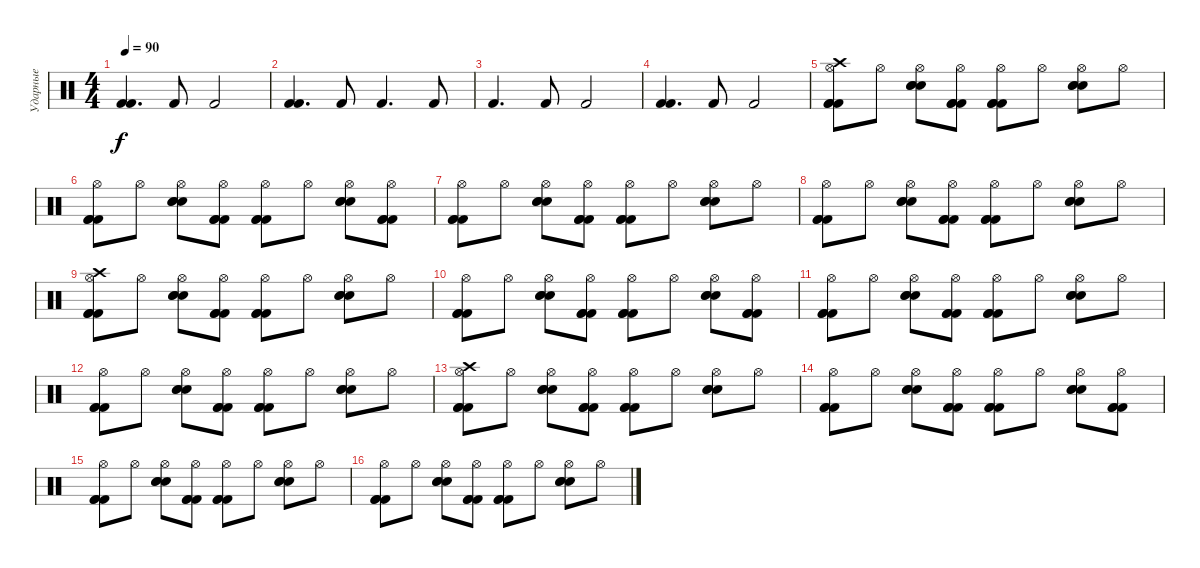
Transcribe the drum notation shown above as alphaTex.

\track ("Ударные" "Ударные") {instrument percussion}
\staff {score}
\articulation defaults
\ts (4 4)
\tempo 90
\clef neutral
\ks c
("Kick (hit) 2" "Kick (hit) 2").4{d dy f} "Kick (hit) 2".8 "Kick (hit) 2".2 |
("Kick (hit) 2" "Kick (hit) 2").4{d} "Kick (hit) 2".8 "Kick (hit) 2".4{d} "Kick (hit) 2".8 |
"Kick (hit) 2".4{d} "Kick (hit) 2".8 "Kick (hit) 2".2 |
("Kick (hit) 2" "Kick (hit) 2").4{d} "Kick (hit) 2".8 "Kick (hit) 2".2 |
("Hi-Hat (open)" "Crash high (hit)" "Kick (hit) 2" "Kick (hit) 2" "Kick (hit) 2").8 "Hi-Hat (open)".8 ("Hi-Hat (open)" "Electric Snare (hit)" "Electric Snare (hit)" "Electric Snare (hit)").8 ("Hi-Hat (open)" "Kick (hit) 2" "Kick (hit) 2" "Kick (hit) 2").8 ("Hi-Hat (open)" "Kick (hit) 2" "Kick (hit) 2" "Kick (hit) 2").8 "Hi-Hat (open)".8 ("Hi-Hat (open)" "Electric Snare (hit)" "Electric Snare (hit)" "Electric Snare (hit)").8 "Hi-Hat (open)".8 |
("Hi-Hat (open)" "Kick (hit) 2" "Kick (hit) 2" "Kick (hit) 2").8 "Hi-Hat (open)".8 ("Hi-Hat (open)" "Electric Snare (hit)" "Electric Snare (hit)" "Electric Snare (hit)").8 ("Hi-Hat (open)" "Kick (hit) 2" "Kick (hit) 2" "Kick (hit) 2").8 ("Hi-Hat (open)" "Kick (hit) 2" "Kick (hit) 2" "Kick (hit) 2").8 "Hi-Hat (open)".8 ("Hi-Hat (open)" "Electric Snare (hit)" "Electric Snare (hit)" "Electric Snare (hit)").8 ("Hi-Hat (open)" "Kick (hit) 2" "Kick (hit) 2" "Kick (hit) 2").8 |
("Hi-Hat (open)" "Kick (hit) 2" "Kick (hit) 2" "Kick (hit) 2").8 "Hi-Hat (open)".8 ("Hi-Hat (open)" "Electric Snare (hit)" "Electric Snare (hit)" "Electric Snare (hit)").8 ("Hi-Hat (open)" "Kick (hit) 2" "Kick (hit) 2" "Kick (hit) 2").8 ("Hi-Hat (open)" "Kick (hit) 2" "Kick (hit) 2" "Kick (hit) 2").8 "Hi-Hat (open)".8 ("Hi-Hat (open)" "Electric Snare (hit)" "Electric Snare (hit)" "Electric Snare (hit)").8 "Hi-Hat (open)".8 |
("Hi-Hat (open)" "Kick (hit) 2" "Kick (hit) 2" "Kick (hit) 2").8 "Hi-Hat (open)".8 ("Hi-Hat (open)" "Electric Snare (hit)" "Electric Snare (hit)" "Electric Snare (hit)").8 ("Hi-Hat (open)" "Kick (hit) 2" "Kick (hit) 2" "Kick (hit) 2").8 ("Hi-Hat (open)" "Kick (hit) 2" "Kick (hit) 2" "Kick (hit) 2").8 "Hi-Hat (open)".8 ("Hi-Hat (open)" "Electric Snare (hit)" "Electric Snare (hit)" "Electric Snare (hit)").8 "Hi-Hat (open)".8 |
("Hi-Hat (open)" "Crash high (hit)" "Kick (hit) 2" "Kick (hit) 2" "Kick (hit) 2").8 "Hi-Hat (open)".8 ("Hi-Hat (open)" "Electric Snare (hit)" "Electric Snare (hit)" "Electric Snare (hit)").8 ("Hi-Hat (open)" "Kick (hit) 2" "Kick (hit) 2" "Kick (hit) 2").8 ("Hi-Hat (open)" "Kick (hit) 2" "Kick (hit) 2" "Kick (hit) 2").8 "Hi-Hat (open)".8 ("Hi-Hat (open)" "Electric Snare (hit)" "Electric Snare (hit)" "Electric Snare (hit)").8 "Hi-Hat (open)".8 |
("Hi-Hat (open)" "Kick (hit) 2" "Kick (hit) 2" "Kick (hit) 2").8 "Hi-Hat (open)".8 ("Hi-Hat (open)" "Electric Snare (hit)" "Electric Snare (hit)" "Electric Snare (hit)").8 ("Hi-Hat (open)" "Kick (hit) 2" "Kick (hit) 2" "Kick (hit) 2").8 ("Hi-Hat (open)" "Kick (hit) 2" "Kick (hit) 2" "Kick (hit) 2").8 "Hi-Hat (open)".8 ("Hi-Hat (open)" "Electric Snare (hit)" "Electric Snare (hit)" "Electric Snare (hit)").8 ("Hi-Hat (open)" "Kick (hit) 2" "Kick (hit) 2" "Kick (hit) 2").8 |
("Hi-Hat (open)" "Kick (hit) 2" "Kick (hit) 2" "Kick (hit) 2").8 "Hi-Hat (open)".8 ("Hi-Hat (open)" "Electric Snare (hit)" "Electric Snare (hit)" "Electric Snare (hit)").8 ("Hi-Hat (open)" "Kick (hit) 2" "Kick (hit) 2" "Kick (hit) 2").8 ("Hi-Hat (open)" "Kick (hit) 2" "Kick (hit) 2" "Kick (hit) 2").8 "Hi-Hat (open)".8 ("Hi-Hat (open)" "Electric Snare (hit)" "Electric Snare (hit)" "Electric Snare (hit)").8 "Hi-Hat (open)".8 |
("Hi-Hat (open)" "Kick (hit) 2" "Kick (hit) 2" "Kick (hit) 2").8 "Hi-Hat (open)".8 ("Hi-Hat (open)" "Electric Snare (hit)" "Electric Snare (hit)" "Electric Snare (hit)").8 ("Hi-Hat (open)" "Kick (hit) 2" "Kick (hit) 2" "Kick (hit) 2").8 ("Hi-Hat (open)" "Kick (hit) 2" "Kick (hit) 2" "Kick (hit) 2").8 "Hi-Hat (open)".8 ("Hi-Hat (open)" "Electric Snare (hit)" "Electric Snare (hit)" "Electric Snare (hit)").8 "Hi-Hat (open)".8 |
("Hi-Hat (open)" "Crash high (hit)" "Kick (hit) 2" "Kick (hit) 2" "Kick (hit) 2").8 "Hi-Hat (open)".8 ("Hi-Hat (open)" "Electric Snare (hit)" "Electric Snare (hit)" "Electric Snare (hit)").8 ("Hi-Hat (open)" "Kick (hit) 2" "Kick (hit) 2" "Kick (hit) 2").8 ("Hi-Hat (open)" "Kick (hit) 2" "Kick (hit) 2" "Kick (hit) 2").8 "Hi-Hat (open)".8 ("Hi-Hat (open)" "Electric Snare (hit)" "Electric Snare (hit)" "Electric Snare (hit)").8 "Hi-Hat (open)".8 |
("Hi-Hat (open)" "Kick (hit) 2" "Kick (hit) 2" "Kick (hit) 2").8 "Hi-Hat (open)".8 ("Hi-Hat (open)" "Electric Snare (hit)" "Electric Snare (hit)" "Electric Snare (hit)").8 ("Hi-Hat (open)" "Kick (hit) 2" "Kick (hit) 2" "Kick (hit) 2").8 ("Hi-Hat (open)" "Kick (hit) 2" "Kick (hit) 2" "Kick (hit) 2").8 "Hi-Hat (open)".8 ("Hi-Hat (open)" "Electric Snare (hit)" "Electric Snare (hit)" "Electric Snare (hit)").8 ("Hi-Hat (open)" "Kick (hit) 2" "Kick (hit) 2" "Kick (hit) 2").8 |
("Hi-Hat (open)" "Kick (hit) 2" "Kick (hit) 2" "Kick (hit) 2").8 "Hi-Hat (open)".8 ("Hi-Hat (open)" "Electric Snare (hit)" "Electric Snare (hit)" "Electric Snare (hit)").8 ("Hi-Hat (open)" "Kick (hit) 2" "Kick (hit) 2" "Kick (hit) 2").8 ("Hi-Hat (open)" "Kick (hit) 2" "Kick (hit) 2" "Kick (hit) 2").8 "Hi-Hat (open)".8 ("Hi-Hat (open)" "Electric Snare (hit)" "Electric Snare (hit)" "Electric Snare (hit)").8 "Hi-Hat (open)".8 |
("Hi-Hat (open)" "Kick (hit) 2" "Kick (hit) 2" "Kick (hit) 2").8 "Hi-Hat (open)".8 ("Hi-Hat (open)" "Electric Snare (hit)" "Electric Snare (hit)" "Electric Snare (hit)").8 ("Hi-Hat (open)" "Kick (hit) 2" "Kick (hit) 2" "Kick (hit) 2").8 ("Hi-Hat (open)" "Kick (hit) 2" "Kick (hit) 2" "Kick (hit) 2").8 "Hi-Hat (open)".8 ("Hi-Hat (open)" "Electric Snare (hit)" "Electric Snare (hit)" "Electric Snare (hit)").8 "Hi-Hat (open)".8
